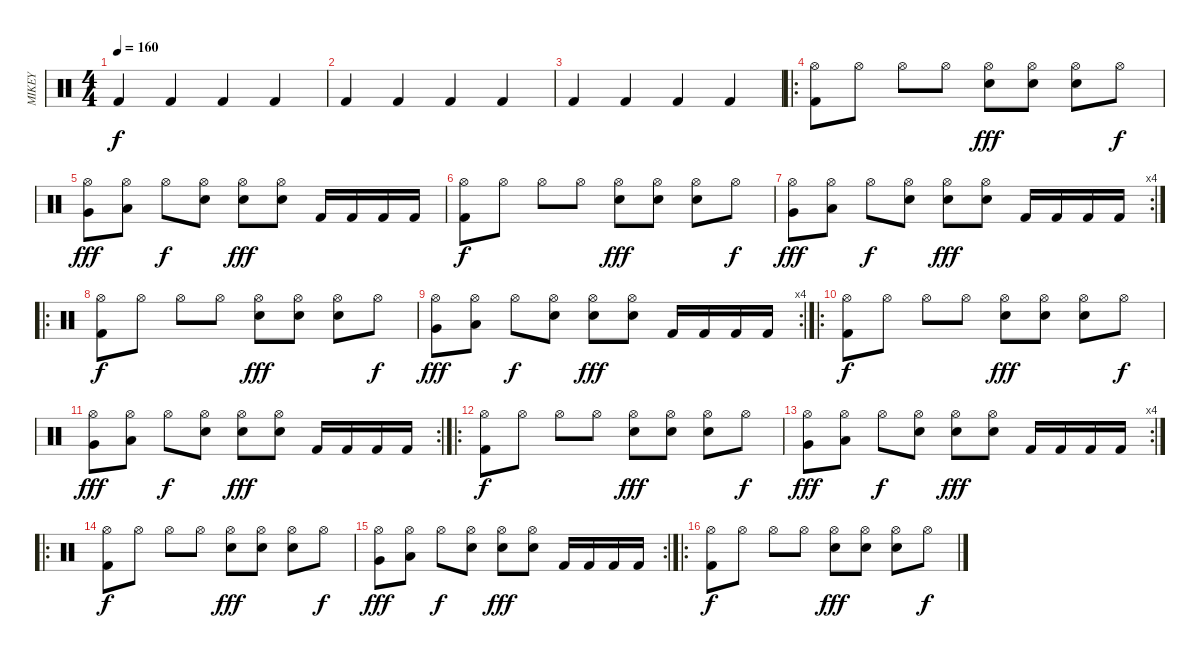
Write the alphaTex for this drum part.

\track ("MIKEY" "MIKEY") {instrument percussion}
\staff {score}
\articulation defaults
\ts (4 4)
\tempo 160
\clef neutral
\ks c "Kick (hit) 2".4{dy f} "Kick (hit) 2".4 "Kick (hit) 2".4 "Kick (hit) 2".4
|
"Kick (hit) 2".4 "Kick (hit) 2".4 "Kick (hit) 2".4 "Kick (hit) 2".4 |
"Kick (hit) 2".4 "Kick (hit) 2".4 "Kick (hit) 2".4 "Kick (hit) 2".4 |
\ro
("Kick (hit) 2" "Hi-Hat (open)").8 "Hi-Hat (open)".8 "Hi-Hat (open)".8 "Hi-Hat (open)".8 ("Snare (hit) 2" "Hi-Hat (open)").8{dy fff} ("Snare (hit) 2" "Hi-Hat (open)").8 ("Snare (hit) 2" "Hi-Hat (open)").8 "Hi-Hat (open)".8{dy f} |
("Very Low Tom (hit)" "Hi-Hat (open)").8{dy fff} ("Low Tom (hit)" "Hi-Hat (open)").8 "Hi-Hat (open)".8{dy f} ("Snare (hit) 2" "Hi-Hat (open)").8 ("Snare (hit) 2" "Hi-Hat (open)").8{dy fff} ("Snare (hit) 2" "Hi-Hat (open)").8 "Kick (hit) 2".16 "Kick (hit) 2".16 "Kick (hit) 2".16 "Kick (hit) 2".16 |
("Kick (hit) 2" "Hi-Hat (open)").8{dy f} "Hi-Hat (open)".8 "Hi-Hat (open)".8 "Hi-Hat (open)".8 ("Snare (hit) 2" "Hi-Hat (open)").8{dy fff} ("Snare (hit) 2" "Hi-Hat (open)").8 ("Snare (hit) 2" "Hi-Hat (open)").8 "Hi-Hat (open)".8{dy f} |
\rc 4
("Very Low Tom (hit)" "Hi-Hat (open)").8{dy fff} ("Low Tom (hit)" "Hi-Hat (open)").8 "Hi-Hat (open)".8{dy f} ("Snare (hit) 2" "Hi-Hat (open)").8 ("Snare (hit) 2" "Hi-Hat (open)").8{dy fff} ("Snare (hit) 2" "Hi-Hat (open)").8 "Kick (hit) 2".16 "Kick (hit) 2".16 "Kick (hit) 2".16 "Kick (hit) 2".16 |
\ro
("Kick (hit) 2" "Hi-Hat (open)").8{dy f} "Hi-Hat (open)".8 "Hi-Hat (open)".8 "Hi-Hat (open)".8 ("Snare (hit) 2" "Hi-Hat (open)").8{dy fff} ("Snare (hit) 2" "Hi-Hat (open)").8 ("Snare (hit) 2" "Hi-Hat (open)").8 "Hi-Hat (open)".8{dy f} |
\rc 4
("Very Low Tom (hit)" "Hi-Hat (open)").8{dy fff} ("Low Tom (hit)" "Hi-Hat (open)").8 "Hi-Hat (open)".8{dy f} ("Snare (hit) 2" "Hi-Hat (open)").8 ("Snare (hit) 2" "Hi-Hat (open)").8{dy fff} ("Snare (hit) 2" "Hi-Hat (open)").8 "Kick (hit) 2".16 "Kick (hit) 2".16 "Kick (hit) 2".16 "Kick (hit) 2".16 |
\ro
("Kick (hit) 2" "Hi-Hat (open)").8{dy f} "Hi-Hat (open)".8 "Hi-Hat (open)".8 "Hi-Hat (open)".8 ("Snare (hit) 2" "Hi-Hat (open)").8{dy fff} ("Snare (hit) 2" "Hi-Hat (open)").8 ("Snare (hit) 2" "Hi-Hat (open)").8 "Hi-Hat (open)".8{dy f} |
\rc 2
("Very Low Tom (hit)" "Hi-Hat (open)").8{dy fff} ("Low Tom (hit)" "Hi-Hat (open)").8 "Hi-Hat (open)".8{dy f} ("Snare (hit) 2" "Hi-Hat (open)").8 ("Snare (hit) 2" "Hi-Hat (open)").8{dy fff} ("Snare (hit) 2" "Hi-Hat (open)").8 "Kick (hit) 2".16 "Kick (hit) 2".16 "Kick (hit) 2".16 "Kick (hit) 2".16 |
\ro
("Kick (hit) 2" "Hi-Hat (open)").8{dy f} "Hi-Hat (open)".8 "Hi-Hat (open)".8 "Hi-Hat (open)".8 ("Snare (hit) 2" "Hi-Hat (open)").8{dy fff} ("Snare (hit) 2" "Hi-Hat (open)").8 ("Snare (hit) 2" "Hi-Hat (open)").8 "Hi-Hat (open)".8{dy f} |
\rc 4
("Very Low Tom (hit)" "Hi-Hat (open)").8{dy fff} ("Low Tom (hit)" "Hi-Hat (open)").8 "Hi-Hat (open)".8{dy f} ("Snare (hit) 2" "Hi-Hat (open)").8 ("Snare (hit) 2" "Hi-Hat (open)").8{dy fff} ("Snare (hit) 2" "Hi-Hat (open)").8 "Kick (hit) 2".16 "Kick (hit) 2".16 "Kick (hit) 2".16 "Kick (hit) 2".16 |
\ro
("Kick (hit) 2" "Hi-Hat (open)").8{dy f} "Hi-Hat (open)".8 "Hi-Hat (open)".8 "Hi-Hat (open)".8 ("Snare (hit) 2" "Hi-Hat (open)").8{dy fff} ("Snare (hit) 2" "Hi-Hat (open)").8 ("Snare (hit) 2" "Hi-Hat (open)").8 "Hi-Hat (open)".8{dy f} |
\rc 2
("Very Low Tom (hit)" "Hi-Hat (open)").8{dy fff} ("Low Tom (hit)" "Hi-Hat (open)").8 "Hi-Hat (open)".8{dy f} ("Snare (hit) 2" "Hi-Hat (open)").8 ("Snare (hit) 2" "Hi-Hat (open)").8{dy fff} ("Snare (hit) 2" "Hi-Hat (open)").8 "Kick (hit) 2".16 "Kick (hit) 2".16 "Kick (hit) 2".16 "Kick (hit) 2".16 |
\ro
("Kick (hit) 2" "Hi-Hat (open)").8{dy f} "Hi-Hat (open)".8 "Hi-Hat (open)".8 "Hi-Hat (open)".8 ("Snare (hit) 2" "Hi-Hat (open)").8{dy fff} ("Snare (hit) 2" "Hi-Hat (open)").8 ("Snare (hit) 2" "Hi-Hat (open)").8 "Hi-Hat (open)".8{dy f}
